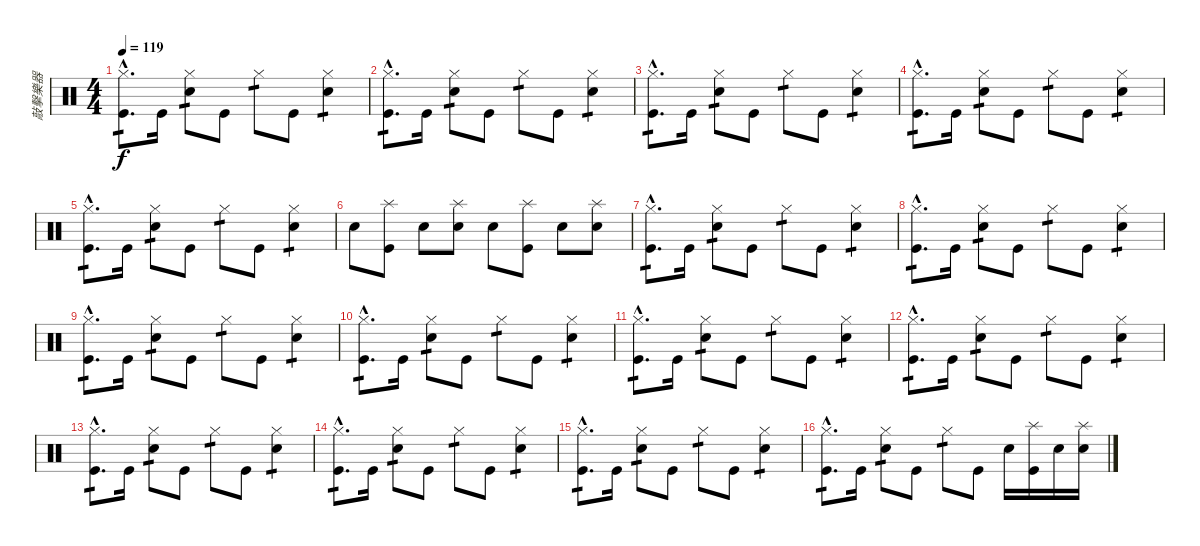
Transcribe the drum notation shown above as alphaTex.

\track ("敲擊樂器" "敲擊樂器") {instrument percussion}
\staff {score}
\articulation defaults
\ts (4 4)
\tempo 119
\clef neutral
\ks c
("Hi-Hat (closed)"{hac} "Kick (hit)"{hac}).8{d tp 1 dy f} "Kick (hit)".16 ("Hi-Hat (closed)" "Electric Snare (hit)").8{tp 1} "Kick (hit)".8 "Hi-Hat (closed)".8{tp 1} "Kick (hit)".8 ("Hi-Hat (closed)" "Electric Snare (hit)").4{tp 1} |
("Hi-Hat (closed)"{hac} "Kick (hit)"{hac}).8{d tp 1} "Kick (hit)".16 ("Hi-Hat (closed)" "Electric Snare (hit)").8{tp 1} "Kick (hit)".8 "Hi-Hat (closed)".8{tp 1} "Kick (hit)".8 ("Hi-Hat (closed)" "Electric Snare (hit)").4{tp 1} |
("Hi-Hat (closed)"{hac} "Kick (hit)"{hac}).8{d tp 1} "Kick (hit)".16 ("Hi-Hat (closed)" "Electric Snare (hit)").8{tp 1} "Kick (hit)".8 "Hi-Hat (closed)".8{tp 1} "Kick (hit)".8 ("Hi-Hat (closed)" "Electric Snare (hit)").4{tp 1} |
("Hi-Hat (closed)"{hac} "Kick (hit)"{hac}).8{d tp 1} "Kick (hit)".16 ("Hi-Hat (closed)" "Electric Snare (hit)").8{tp 1} "Kick (hit)".8 "Hi-Hat (closed)".8{tp 1} "Kick (hit)".8 ("Hi-Hat (closed)" "Electric Snare (hit)").4{tp 1} |
("Hi-Hat (closed)"{hac} "Kick (hit)"{hac}).8{d tp 1} "Kick (hit)".16 ("Hi-Hat (closed)" "Electric Snare (hit)").8{tp 1} "Kick (hit)".8 "Hi-Hat (closed)".8{tp 1} "Kick (hit)".8 ("Hi-Hat (closed)" "Electric Snare (hit)").4{tp 1} |
"Electric Snare (hit)".8 ("Splash (hit)" "Kick (hit)").8 "Electric Snare (hit)".8 ("Splash (hit)" "Electric Snare (hit)").8 "Electric Snare (hit)".8 ("Splash (hit)" "Kick (hit)").8 "Electric Snare (hit)".8 ("Splash (hit)" "Electric Snare (hit)").8 |
("Hi-Hat (closed)"{hac} "Kick (hit)"{hac}).8{d tp 1} "Kick (hit)".16 ("Hi-Hat (closed)" "Electric Snare (hit)").8{tp 1} "Kick (hit)".8 "Hi-Hat (closed)".8{tp 1} "Kick (hit)".8 ("Hi-Hat (closed)" "Electric Snare (hit)").4{tp 1} |
("Hi-Hat (closed)"{hac} "Kick (hit)"{hac}).8{d tp 1} "Kick (hit)".16 ("Hi-Hat (closed)" "Electric Snare (hit)").8{tp 1} "Kick (hit)".8 "Hi-Hat (closed)".8{tp 1} "Kick (hit)".8 ("Hi-Hat (closed)" "Electric Snare (hit)").4{tp 1} |
("Hi-Hat (closed)"{hac} "Kick (hit)"{hac}).8{d tp 1} "Kick (hit)".16 ("Hi-Hat (closed)" "Electric Snare (hit)").8{tp 1} "Kick (hit)".8 "Hi-Hat (closed)".8{tp 1} "Kick (hit)".8 ("Hi-Hat (closed)" "Electric Snare (hit)").4{tp 1} |
("Hi-Hat (closed)"{hac} "Kick (hit)"{hac}).8{d tp 1} "Kick (hit)".16 ("Hi-Hat (closed)" "Electric Snare (hit)").8{tp 1} "Kick (hit)".8 "Hi-Hat (closed)".8{tp 1} "Kick (hit)".8 ("Hi-Hat (closed)" "Electric Snare (hit)").4{tp 1} |
("Hi-Hat (closed)"{hac} "Kick (hit)"{hac}).8{d tp 1} "Kick (hit)".16 ("Hi-Hat (closed)" "Electric Snare (hit)").8{tp 1} "Kick (hit)".8 "Hi-Hat (closed)".8{tp 1} "Kick (hit)".8 ("Hi-Hat (closed)" "Electric Snare (hit)").4{tp 1} |
("Hi-Hat (closed)"{hac} "Kick (hit)"{hac}).8{d tp 1} "Kick (hit)".16 ("Hi-Hat (closed)" "Electric Snare (hit)").8{tp 1} "Kick (hit)".8 "Hi-Hat (closed)".8{tp 1} "Kick (hit)".8 ("Hi-Hat (closed)" "Electric Snare (hit)").4{tp 1} |
("Hi-Hat (closed)"{hac} "Kick (hit)"{hac}).8{d tp 1} "Kick (hit)".16 ("Hi-Hat (closed)" "Electric Snare (hit)").8{tp 1} "Kick (hit)".8 "Hi-Hat (closed)".8{tp 1} "Kick (hit)".8 ("Hi-Hat (closed)" "Electric Snare (hit)").4{tp 1} |
("Hi-Hat (closed)"{hac} "Kick (hit)"{hac}).8{d tp 1} "Kick (hit)".16 ("Hi-Hat (closed)" "Electric Snare (hit)").8{tp 1} "Kick (hit)".8 "Hi-Hat (closed)".8{tp 1} "Kick (hit)".8 ("Hi-Hat (closed)" "Electric Snare (hit)").4{tp 1} |
("Hi-Hat (closed)"{hac} "Kick (hit)"{hac}).8{d tp 1} "Kick (hit)".16 ("Hi-Hat (closed)" "Electric Snare (hit)").8{tp 1} "Kick (hit)".8 "Hi-Hat (closed)".8{tp 1} "Kick (hit)".8 ("Hi-Hat (closed)" "Electric Snare (hit)").4{tp 1} |
("Hi-Hat (closed)"{hac} "Kick (hit)"{hac}).8{d tp 1} "Kick (hit)".16 ("Hi-Hat (closed)" "Electric Snare (hit)").8{tp 1} "Kick (hit)".8 "Hi-Hat (closed)".8{tp 1} "Kick (hit)".8 "Electric Snare (hit)".16 ("Splash (hit)" "Kick (hit)").16 "Electric Snare (hit)".16 ("Splash (hit)" "Electric Snare (hit)").16
